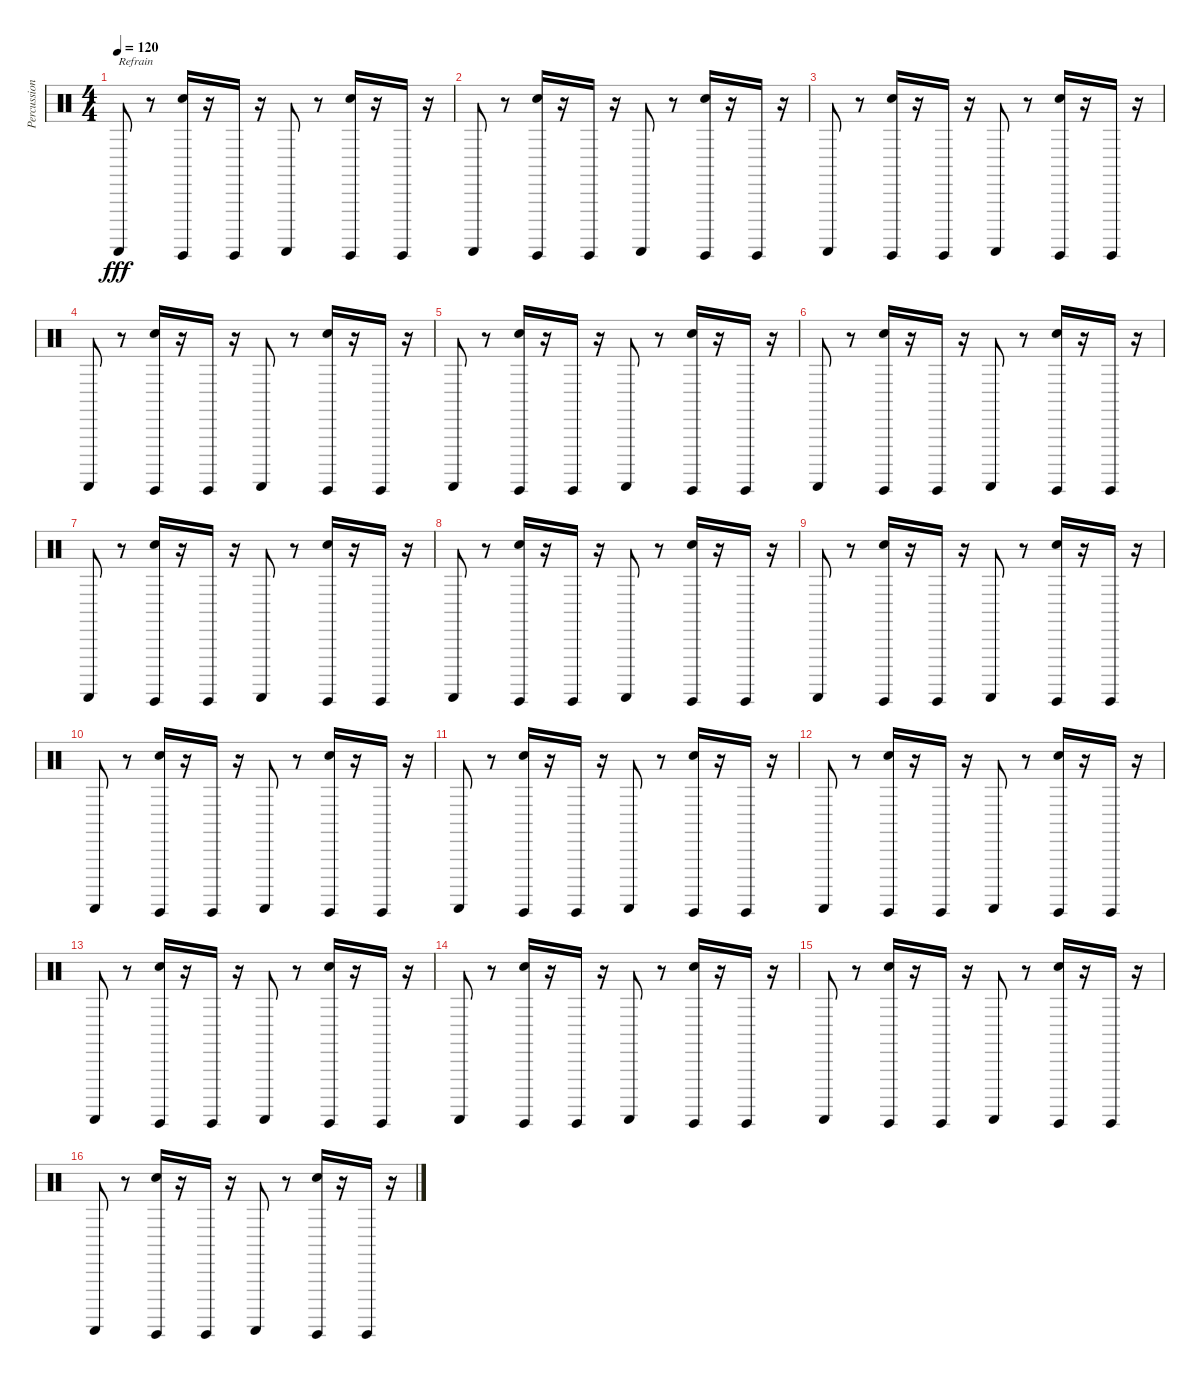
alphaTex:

\track ("Percussions" "Percussion") {instrument percussion}
\staff {score}
\articulation defaults
\ts (4 4)
\tempo 120
\clef neutral
\ks c "Guiro (scrap-return)".8{txt "Refrain" dy fff}
r.8 ("Guiro (hit)" "Hand Clap (hit)").16 r.16 "Guiro (hit)".16 r.16 "Guiro (scrap-return)".8 r.8 ("Guiro (hit)" "Hand Clap (hit)").16 r.16 "Guiro (hit)".16 r.16 |
"Guiro (scrap-return)".8 r.8 ("Guiro (hit)" "Hand Clap (hit)").16 r.16 "Guiro (hit)".16 r.16 "Guiro (scrap-return)".8 r.8 ("Guiro (hit)" "Hand Clap (hit)").16 r.16 "Guiro (hit)".16 r.16 |
"Guiro (scrap-return)".8 r.8 ("Guiro (hit)" "Hand Clap (hit)").16 r.16 "Guiro (hit)".16 r.16 "Guiro (scrap-return)".8 r.8 ("Guiro (hit)" "Hand Clap (hit)").16 r.16 "Guiro (hit)".16 r.16 |
"Guiro (scrap-return)".8 r.8 ("Guiro (hit)" "Hand Clap (hit)").16 r.16 "Guiro (hit)".16 r.16 "Guiro (scrap-return)".8 r.8 ("Guiro (hit)" "Hand Clap (hit)").16 r.16 "Guiro (hit)".16 r.16 |
"Guiro (scrap-return)".8 r.8 ("Guiro (hit)" "Hand Clap (hit)").16 r.16 "Guiro (hit)".16 r.16 "Guiro (scrap-return)".8 r.8 ("Guiro (hit)" "Hand Clap (hit)").16 r.16 "Guiro (hit)".16 r.16 |
"Guiro (scrap-return)".8 r.8 ("Guiro (hit)" "Hand Clap (hit)").16 r.16 "Guiro (hit)".16 r.16 "Guiro (scrap-return)".8 r.8 ("Guiro (hit)" "Hand Clap (hit)").16 r.16 "Guiro (hit)".16 r.16 |
"Guiro (scrap-return)".8 r.8 ("Guiro (hit)" "Hand Clap (hit)").16 r.16 "Guiro (hit)".16 r.16 "Guiro (scrap-return)".8 r.8 ("Guiro (hit)" "Hand Clap (hit)").16 r.16 "Guiro (hit)".16 r.16 |
"Guiro (scrap-return)".8 r.8 ("Guiro (hit)" "Hand Clap (hit)").16 r.16 "Guiro (hit)".16 r.16 "Guiro (scrap-return)".8 r.8 ("Guiro (hit)" "Hand Clap (hit)").16 r.16 "Guiro (hit)".16 r.16 |
"Guiro (scrap-return)".8 r.8 ("Guiro (hit)" "Hand Clap (hit)").16 r.16 "Guiro (hit)".16 r.16 "Guiro (scrap-return)".8 r.8 ("Guiro (hit)" "Hand Clap (hit)").16 r.16 "Guiro (hit)".16 r.16 |
"Guiro (scrap-return)".8 r.8 ("Guiro (hit)" "Hand Clap (hit)").16 r.16 "Guiro (hit)".16 r.16 "Guiro (scrap-return)".8 r.8 ("Guiro (hit)" "Hand Clap (hit)").16 r.16 "Guiro (hit)".16 r.16 |
"Guiro (scrap-return)".8 r.8 ("Guiro (hit)" "Hand Clap (hit)").16 r.16 "Guiro (hit)".16 r.16 "Guiro (scrap-return)".8 r.8 ("Guiro (hit)" "Hand Clap (hit)").16 r.16 "Guiro (hit)".16 r.16 |
"Guiro (scrap-return)".8 r.8 ("Guiro (hit)" "Hand Clap (hit)").16 r.16 "Guiro (hit)".16 r.16 "Guiro (scrap-return)".8 r.8 ("Guiro (hit)" "Hand Clap (hit)").16 r.16 "Guiro (hit)".16 r.16 |
"Guiro (scrap-return)".8 r.8 ("Guiro (hit)" "Hand Clap (hit)").16 r.16 "Guiro (hit)".16 r.16 "Guiro (scrap-return)".8 r.8 ("Guiro (hit)" "Hand Clap (hit)").16 r.16 "Guiro (hit)".16 r.16 |
"Guiro (scrap-return)".8 r.8 ("Guiro (hit)" "Hand Clap (hit)").16 r.16 "Guiro (hit)".16 r.16 "Guiro (scrap-return)".8 r.8 ("Guiro (hit)" "Hand Clap (hit)").16 r.16 "Guiro (hit)".16 r.16 |
"Guiro (scrap-return)".8 r.8 ("Guiro (hit)" "Hand Clap (hit)").16 r.16 "Guiro (hit)".16 r.16 "Guiro (scrap-return)".8 r.8 ("Guiro (hit)" "Hand Clap (hit)").16 r.16 "Guiro (hit)".16 r.16 |
"Guiro (scrap-return)".8 r.8 ("Guiro (hit)" "Hand Clap (hit)").16 r.16 "Guiro (hit)".16 r.16 "Guiro (scrap-return)".8 r.8 ("Guiro (hit)" "Hand Clap (hit)").16 r.16 "Guiro (hit)".16 r.16
